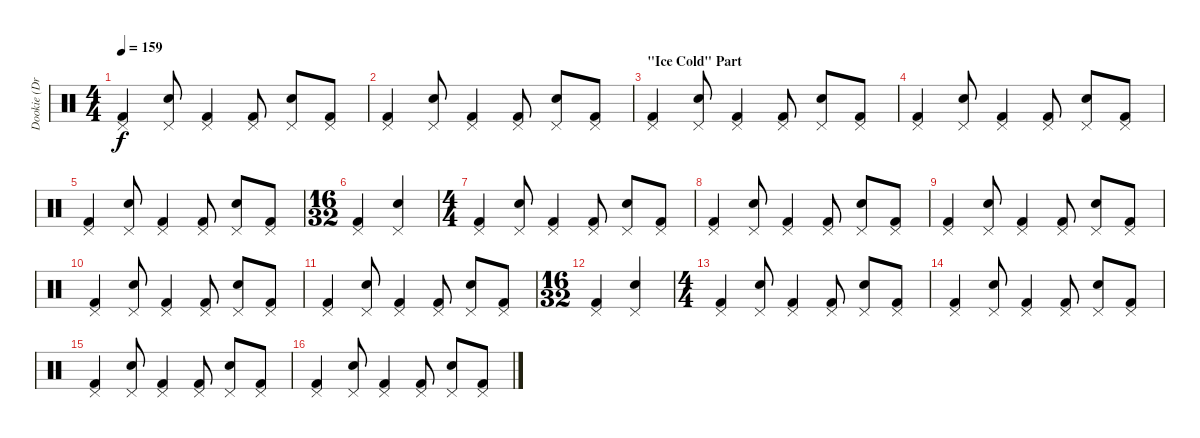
\track ("Dookie (Drums)" "Dookie (Dr") {instrument percussion}
\staff {score}
\articulation defaults
\ts (4 4)
\tempo 159
\clef neutral
\ks c
("Kick (hit) 2" "Pedal Hi-Hat (hit)").4{dy f} ("Electric Snare (hit)" "Pedal Hi-Hat (hit)").8 ("Kick (hit) 2" "Pedal Hi-Hat (hit)").4 ("Kick (hit) 2" "Pedal Hi-Hat (hit)").8 ("Electric Snare (hit)" "Pedal Hi-Hat (hit)").8 ("Kick (hit) 2" "Pedal Hi-Hat (hit)").8 |
("Kick (hit) 2" "Pedal Hi-Hat (hit)").4 ("Electric Snare (hit)" "Pedal Hi-Hat (hit)").8 ("Kick (hit) 2" "Pedal Hi-Hat (hit)").4 ("Kick (hit) 2" "Pedal Hi-Hat (hit)").8 ("Electric Snare (hit)" "Pedal Hi-Hat (hit)").8 ("Kick (hit) 2" "Pedal Hi-Hat (hit)").8 |
\section ("" "\"Ice Cold\" Part")
("Kick (hit) 2" "Pedal Hi-Hat (hit)").4 ("Electric Snare (hit)" "Pedal Hi-Hat (hit)").8 ("Kick (hit) 2" "Pedal Hi-Hat (hit)").4 ("Kick (hit) 2" "Pedal Hi-Hat (hit)").8 ("Electric Snare (hit)" "Pedal Hi-Hat (hit)").8 ("Kick (hit) 2" "Pedal Hi-Hat (hit)").8 |
("Kick (hit) 2" "Pedal Hi-Hat (hit)").4 ("Electric Snare (hit)" "Pedal Hi-Hat (hit)").8 ("Kick (hit) 2" "Pedal Hi-Hat (hit)").4 ("Kick (hit) 2" "Pedal Hi-Hat (hit)").8 ("Electric Snare (hit)" "Pedal Hi-Hat (hit)").8 ("Kick (hit) 2" "Pedal Hi-Hat (hit)").8 |
("Kick (hit) 2" "Pedal Hi-Hat (hit)").4 ("Electric Snare (hit)" "Pedal Hi-Hat (hit)").8 ("Kick (hit) 2" "Pedal Hi-Hat (hit)").4 ("Kick (hit) 2" "Pedal Hi-Hat (hit)").8 ("Electric Snare (hit)" "Pedal Hi-Hat (hit)").8 ("Kick (hit) 2" "Pedal Hi-Hat (hit)").8 |
\ts (16 32)
("Kick (hit) 2" "Pedal Hi-Hat (hit)").4 ("Electric Snare (hit)" "Pedal Hi-Hat (hit)").4 |
\ts (4 4)
("Kick (hit) 2" "Pedal Hi-Hat (hit)").4 ("Electric Snare (hit)" "Pedal Hi-Hat (hit)").8 ("Kick (hit) 2" "Pedal Hi-Hat (hit)").4 ("Kick (hit) 2" "Pedal Hi-Hat (hit)").8 ("Electric Snare (hit)" "Pedal Hi-Hat (hit)").8 ("Kick (hit) 2" "Pedal Hi-Hat (hit)").8 |
("Kick (hit) 2" "Pedal Hi-Hat (hit)").4 ("Electric Snare (hit)" "Pedal Hi-Hat (hit)").8 ("Kick (hit) 2" "Pedal Hi-Hat (hit)").4 ("Kick (hit) 2" "Pedal Hi-Hat (hit)").8 ("Electric Snare (hit)" "Pedal Hi-Hat (hit)").8 ("Kick (hit) 2" "Pedal Hi-Hat (hit)").8 |
("Kick (hit) 2" "Pedal Hi-Hat (hit)").4 ("Electric Snare (hit)" "Pedal Hi-Hat (hit)").8 ("Kick (hit) 2" "Pedal Hi-Hat (hit)").4 ("Kick (hit) 2" "Pedal Hi-Hat (hit)").8 ("Electric Snare (hit)" "Pedal Hi-Hat (hit)").8 ("Kick (hit) 2" "Pedal Hi-Hat (hit)").8 |
("Kick (hit) 2" "Pedal Hi-Hat (hit)").4 ("Electric Snare (hit)" "Pedal Hi-Hat (hit)").8 ("Kick (hit) 2" "Pedal Hi-Hat (hit)").4 ("Kick (hit) 2" "Pedal Hi-Hat (hit)").8 ("Electric Snare (hit)" "Pedal Hi-Hat (hit)").8 ("Kick (hit) 2" "Pedal Hi-Hat (hit)").8 |
("Kick (hit) 2" "Pedal Hi-Hat (hit)").4 ("Electric Snare (hit)" "Pedal Hi-Hat (hit)").8 ("Kick (hit) 2" "Pedal Hi-Hat (hit)").4 ("Kick (hit) 2" "Pedal Hi-Hat (hit)").8 ("Electric Snare (hit)" "Pedal Hi-Hat (hit)").8 ("Kick (hit) 2" "Pedal Hi-Hat (hit)").8 |
\ts (16 32)
("Kick (hit) 2" "Pedal Hi-Hat (hit)").4 ("Electric Snare (hit)" "Pedal Hi-Hat (hit)").4 |
\ts (4 4)
("Kick (hit) 2" "Pedal Hi-Hat (hit)").4 ("Electric Snare (hit)" "Pedal Hi-Hat (hit)").8 ("Kick (hit) 2" "Pedal Hi-Hat (hit)").4 ("Kick (hit) 2" "Pedal Hi-Hat (hit)").8 ("Electric Snare (hit)" "Pedal Hi-Hat (hit)").8 ("Kick (hit) 2" "Pedal Hi-Hat (hit)").8 |
("Kick (hit) 2" "Pedal Hi-Hat (hit)").4 ("Electric Snare (hit)" "Pedal Hi-Hat (hit)").8 ("Kick (hit) 2" "Pedal Hi-Hat (hit)").4 ("Kick (hit) 2" "Pedal Hi-Hat (hit)").8 ("Electric Snare (hit)" "Pedal Hi-Hat (hit)").8 ("Kick (hit) 2" "Pedal Hi-Hat (hit)").8 |
("Kick (hit) 2" "Pedal Hi-Hat (hit)").4 ("Electric Snare (hit)" "Pedal Hi-Hat (hit)").8 ("Kick (hit) 2" "Pedal Hi-Hat (hit)").4 ("Kick (hit) 2" "Pedal Hi-Hat (hit)").8 ("Electric Snare (hit)" "Pedal Hi-Hat (hit)").8 ("Kick (hit) 2" "Pedal Hi-Hat (hit)").8 |
("Kick (hit) 2" "Pedal Hi-Hat (hit)").4 ("Electric Snare (hit)" "Pedal Hi-Hat (hit)").8 ("Kick (hit) 2" "Pedal Hi-Hat (hit)").4 ("Kick (hit) 2" "Pedal Hi-Hat (hit)").8 ("Electric Snare (hit)" "Pedal Hi-Hat (hit)").8 ("Kick (hit) 2" "Pedal Hi-Hat (hit)").8
